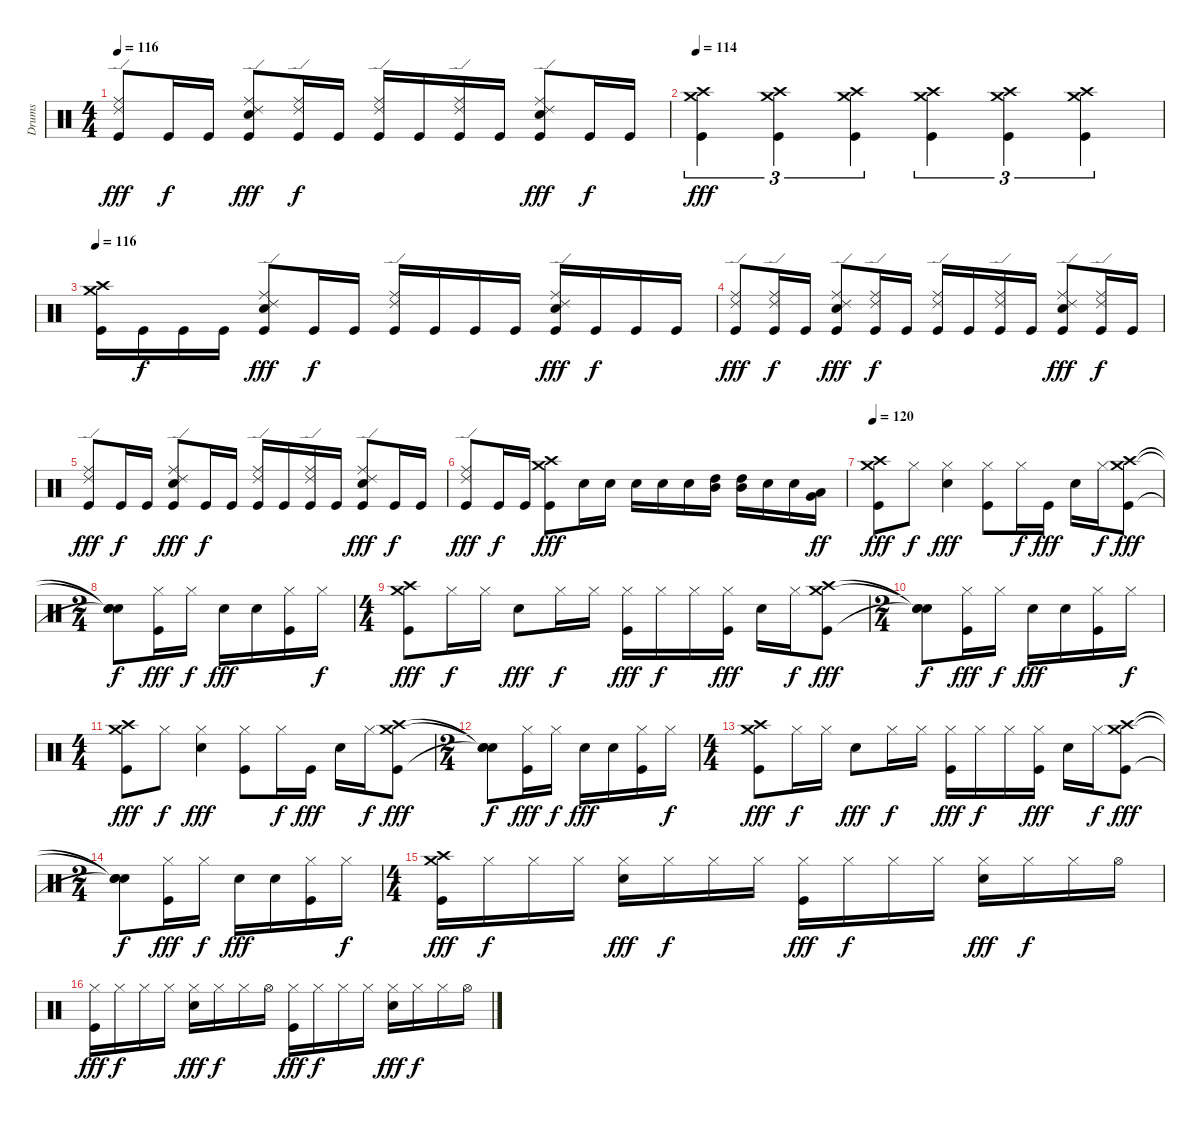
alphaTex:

\track ("Drums" "Drums") {instrument percussion}
\staff {score}
\articulation defaults
\ts (4 4)
\tempo 116
\clef neutral
\ks c
("Ride (edge) 2" "Ride (middle)" "Kick (hit)").8{dy fff} "Kick (hit)".16{dy f} "Kick (hit)".16 ("Ride (edge) 2" "Ride (middle)" "Snare (hit) 2" "Kick (hit)").8{dy fff} ("Ride (edge) 2" "Ride (middle)" "Kick (hit)").16{dy f} "Kick (hit)".16 ("Ride (edge) 2" "Ride (middle)" "Kick (hit)").16 "Kick (hit)".16 ("Ride (edge) 2" "Ride (middle)" "Kick (hit)").16 "Kick (hit)".16 ("Ride (edge) 2" "Ride (middle)" "Snare (hit) 2" "Kick (hit)").8{dy fff} "Kick (hit)".16{dy f} "Kick (hit)".16 |
\tempo 114
("Crash high (hit)" "Crash medium (hit)" "Kick (hit)").4{tu (3 2) dy fff} ("Crash high (hit)" "Crash medium (hit)" "Kick (hit)").4{tu (3 2)} ("Crash high (hit)" "Crash medium (hit)" "Kick (hit)").4{tu (3 2)} ("Crash high (hit)" "Crash medium (hit)" "Kick (hit)").4{tu (3 2)} ("Crash high (hit)" "Crash medium (hit)" "Kick (hit)").4{tu (3 2)} ("Crash high (hit)" "Crash medium (hit)" "Kick (hit)").4{tu (3 2)} |
\tempo 116
("Crash high (hit)" "Crash medium (hit)" "Kick (hit)").16 "Kick (hit)".16{dy f} "Kick (hit)".16 "Kick (hit)".16 ("Ride (edge) 2" "Ride (middle)" "Snare (hit) 2" "Kick (hit)").8{dy fff} "Kick (hit)".16{dy f} "Kick (hit)".16 ("Ride (edge) 2" "Ride (middle)" "Kick (hit)").16 "Kick (hit)".16 "Kick (hit)".16 "Kick (hit)".16 ("Ride (edge) 2" "Ride (middle)" "Snare (hit) 2" "Kick (hit)").16{dy fff} "Kick (hit)".16{dy f} "Kick (hit)".16 "Kick (hit)".16 |
("Ride (edge) 2" "Ride (middle)" "Kick (hit)").8{dy fff} ("Ride (edge) 2" "Ride (middle)" "Kick (hit)").16{dy f} "Kick (hit)".16 ("Ride (edge) 2" "Ride (middle)" "Snare (hit) 2" "Kick (hit)").8{dy fff} ("Ride (edge) 2" "Ride (middle)" "Kick (hit)").16{dy f} "Kick (hit)".16 ("Ride (edge) 2" "Ride (middle)" "Kick (hit)").16 "Kick (hit)".16 ("Ride (edge) 2" "Ride (middle)" "Kick (hit)").16 "Kick (hit)".16 ("Ride (edge) 2" "Ride (middle)" "Snare (hit) 2" "Kick (hit)").8{dy fff} ("Ride (edge) 2" "Ride (middle)" "Kick (hit)").16{dy f} "Kick (hit)".16 |
("Ride (edge) 2" "Ride (middle)" "Kick (hit)").8{dy fff} "Kick (hit)".16{dy f} "Kick (hit)".16 ("Ride (edge) 2" "Ride (middle)" "Snare (hit) 2" "Kick (hit)").8{dy fff} "Kick (hit)".16{dy f} "Kick (hit)".16 ("Ride (edge) 2" "Ride (middle)" "Kick (hit)").16 "Kick (hit)".16 ("Ride (edge) 2" "Ride (middle)" "Kick (hit)").16 "Kick (hit)".16 ("Ride (edge) 2" "Ride (middle)" "Snare (hit) 2" "Kick (hit)").8{dy fff} "Kick (hit)".16{dy f} "Kick (hit)".16 |
("Ride (edge) 2" "Ride (middle)" "Kick (hit)").8{dy fff} "Kick (hit)".16{dy f} "Kick (hit)".16 ("Crash high (hit)" "Crash medium (hit)" "Kick (hit)").8{dy fff} "Snare (hit) 2".16 "Snare (hit) 2".16 "Snare (hit) 2".16 "Snare (hit) 2".16 "Snare (hit) 2".16 ("High Tom (hit)" "Mid Tom (hit)").16 ("High Tom (hit)" "Mid Tom (hit)").16 "Snare (hit) 2".16 "Snare (hit) 2".16 ("Low Tom (hit)" "Very Low Tom (hit)").16{dy ff} |
\tempo 120
("Crash high (hit)" "Crash medium (hit)" "Kick (hit)").8{dy fff} "Hi-Hat (closed)".8{dy f} ("Hi-Hat (closed)" "Snare (hit) 2").4{dy fff} ("Hi-Hat (closed)" "Kick (hit)").8 "Hi-Hat (closed)".16{dy f} "Kick (hit)".16{dy fff} "Snare (hit) 2".16 "Hi-Hat (closed)".16{dy f} ("Crash high (hit)" "Crash medium (hit)" "Kick (hit)").8{dy fff} |
\ts (2 4)
("Snare (hit)"{t} "Snare (hit)"{t} "Snare (hit)"{t}).8{dy f} ("Hi-Hat (closed)" "Kick (hit)").16{dy fff} "Hi-Hat (closed)".16{dy f} "Snare (hit) 2".16{dy fff} "Snare (hit) 2".16 ("Hi-Hat (closed)" "Kick (hit)").16 "Hi-Hat (closed)".16{dy f} |
\ts (4 4)
("Crash high (hit)" "Crash medium (hit)" "Kick (hit)").8{dy fff} "Hi-Hat (closed)".16{dy f} "Hi-Hat (closed)".16 "Snare (hit) 2".8{dy fff} "Hi-Hat (closed)".16{dy f} "Hi-Hat (closed)".16 ("Hi-Hat (closed)" "Kick (hit)").16{dy fff} "Hi-Hat (closed)".16{dy f} "Hi-Hat (closed)".16 ("Hi-Hat (closed)" "Kick (hit)").16{dy fff} "Snare (hit) 2".16 "Hi-Hat (closed)".16{dy f} ("Crash high (hit)" "Crash medium (hit)" "Kick (hit)").8{dy fff} |
\ts (2 4)
("Snare (hit)"{t} "Snare (hit)"{t} "Snare (hit)"{t}).8{dy f} ("Hi-Hat (closed)" "Kick (hit)").16{dy fff} "Hi-Hat (closed)".16{dy f} "Snare (hit) 2".16{dy fff} "Snare (hit) 2".16 ("Hi-Hat (closed)" "Kick (hit)").16 "Hi-Hat (closed)".16{dy f} |
\ts (4 4)
("Crash high (hit)" "Crash medium (hit)" "Kick (hit)").8{dy fff} "Hi-Hat (closed)".8{dy f} ("Hi-Hat (closed)" "Snare (hit) 2").4{dy fff} ("Hi-Hat (closed)" "Kick (hit)").8 "Hi-Hat (closed)".16{dy f} "Kick (hit)".16{dy fff} "Snare (hit) 2".16 "Hi-Hat (closed)".16{dy f} ("Crash high (hit)" "Crash medium (hit)" "Kick (hit)").8{dy fff} |
\ts (2 4)
("Snare (hit)"{t} "Snare (hit)"{t} "Snare (hit)"{t}).8{dy f} ("Hi-Hat (closed)" "Kick (hit)").16{dy fff} "Hi-Hat (closed)".16{dy f} "Snare (hit) 2".16{dy fff} "Snare (hit) 2".16 ("Hi-Hat (closed)" "Kick (hit)").16 "Hi-Hat (closed)".16{dy f} |
\ts (4 4)
("Crash high (hit)" "Crash medium (hit)" "Kick (hit)").8{dy fff} "Hi-Hat (closed)".16{dy f} "Hi-Hat (closed)".16 "Snare (hit) 2".8{dy fff} "Hi-Hat (closed)".16{dy f} "Hi-Hat (closed)".16 ("Hi-Hat (closed)" "Kick (hit)").16{dy fff} "Hi-Hat (closed)".16{dy f} "Hi-Hat (closed)".16 ("Hi-Hat (closed)" "Kick (hit)").16{dy fff} "Snare (hit) 2".16 "Hi-Hat (closed)".16{dy f} ("Crash high (hit)" "Crash medium (hit)" "Kick (hit)").8{dy fff} |
\ts (2 4)
("Snare (hit)"{t} "Snare (hit)"{t} "Snare (hit)"{t}).8{dy f} ("Hi-Hat (closed)" "Kick (hit)").16{dy fff} "Hi-Hat (closed)".16{dy f} "Snare (hit) 2".16{dy fff} "Snare (hit) 2".16 ("Hi-Hat (closed)" "Kick (hit)").16 "Hi-Hat (closed)".16{dy f} |
\ts (4 4)
("Crash high (hit)" "Crash medium (hit)" "Kick (hit)").16{dy fff} "Hi-Hat (closed)".16{dy f} "Hi-Hat (closed)".16 "Hi-Hat (closed)".16 ("Hi-Hat (closed)" "Snare (hit) 2").16{dy fff} "Hi-Hat (closed)".16{dy f} "Hi-Hat (closed)".16 "Hi-Hat (closed)".16 ("Hi-Hat (closed)" "Kick (hit)").16{dy fff} "Hi-Hat (closed)".16{dy f} "Hi-Hat (closed)".16 "Hi-Hat (closed)".16 ("Hi-Hat (closed)" "Snare (hit) 2").16{dy fff} "Hi-Hat (closed)".16{dy f} "Hi-Hat (closed)".16 "Hi-Hat (open)".16 |
("Hi-Hat (closed)" "Kick (hit)").16{dy fff} "Hi-Hat (closed)".16{dy f} "Hi-Hat (closed)".16 "Hi-Hat (closed)".16 ("Hi-Hat (closed)" "Snare (hit) 2").16{dy fff} "Hi-Hat (closed)".16{dy f} "Hi-Hat (closed)".16 "Hi-Hat (open)".16 ("Hi-Hat (closed)" "Kick (hit)").16{dy fff} "Hi-Hat (closed)".16{dy f} "Hi-Hat (closed)".16 "Hi-Hat (closed)".16 ("Hi-Hat (closed)" "Snare (hit) 2").16{dy fff} "Hi-Hat (closed)".16{dy f} "Hi-Hat (closed)".16 "Hi-Hat (open)".16
